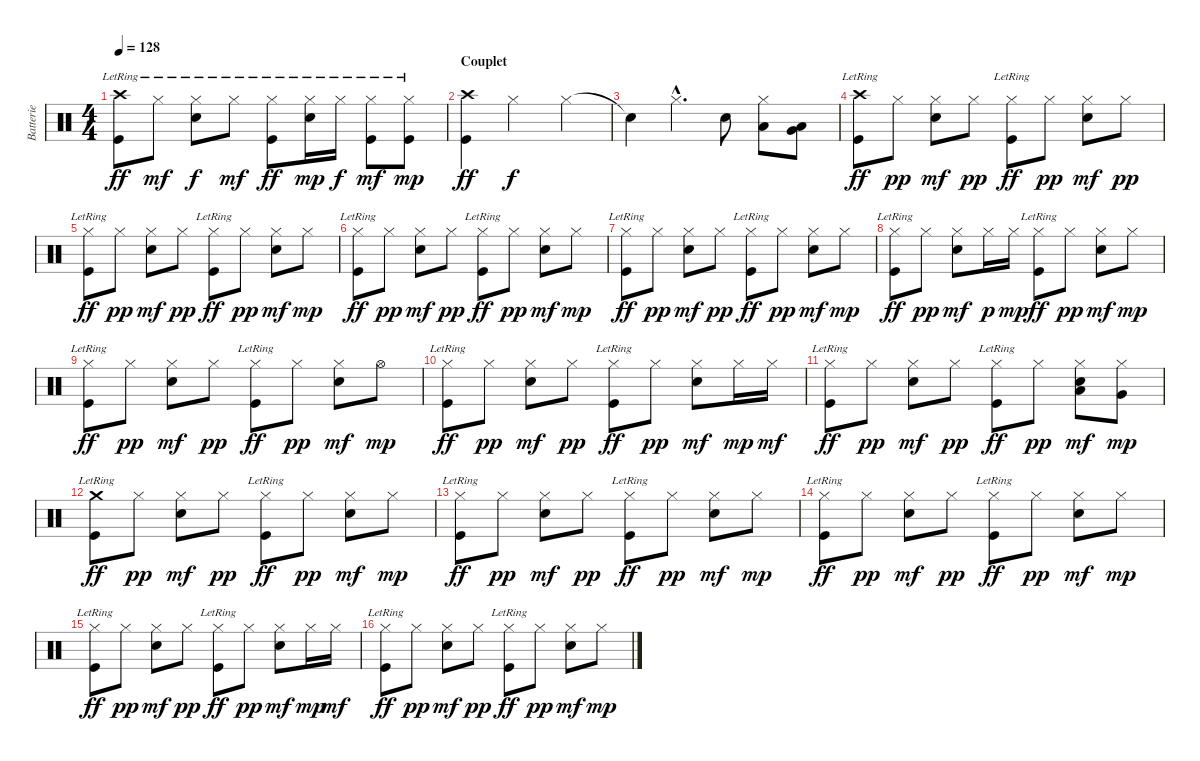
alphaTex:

\track ("Batterie" "Batterie") {instrument percussion}
\staff {score}
\articulation defaults
\ts (4 4)
\tempo 128
\clef neutral
\ks c
("Crash high (hit)"{lr} "Kick (hit)"{lr}).8{dy ff} "Hi-Hat (closed)"{lr}.8{dy mf} ("Hi-Hat (closed)"{lr} "Snare (hit) 2"{lr}).8{dy f} "Hi-Hat (closed)"{lr}.8{dy mf} ("Hi-Hat (closed)"{lr} "Kick (hit)").8{dy ff} ("Hi-Hat (closed)"{lr} "Snare (hit) 2").16{dy mp} "Hi-Hat (closed)"{lr}.16{dy f} ("Hi-Hat (closed)"{lr} "Kick (hit)").8{dy mf} ("Hi-Hat (closed)"{lr} "Kick (hit)").8{dy mp} |
\section ("" "Couplet")
("Crash high (hit)" "Kick (hit)").4{dy ff} "Hi-Hat (closed)".2{dy f} "Hi-Hat (closed)".4 |
"Snare (hit)"{t}.4 "Hi-Hat (closed)"{hac}.4{d} "Snare (hit) 2".8 ("Low Tom (hit)" "Hi-Hat (closed)").8 ("Low Floor Tom (hit)" "Very Low Tom (hit)").8 |
("Crash high (hit)" "Kick (hit)"{lr}).8{dy ff} "Hi-Hat (closed)".8{dy pp} ("Hi-Hat (closed)" "Snare (hit) 2").8{dy mf} "Hi-Hat (closed)".8{dy pp} ("Hi-Hat (closed)" "Kick (hit)"{lr}).8{dy ff} "Hi-Hat (closed)".8{dy pp} ("Hi-Hat (closed)" "Snare (hit) 2").8{dy mf} "Hi-Hat (closed)".8{dy pp} |
("Hi-Hat (closed)" "Kick (hit)"{lr}).8{dy ff} "Hi-Hat (closed)".8{dy pp} ("Hi-Hat (closed)" "Snare (hit) 2").8{dy mf} "Hi-Hat (closed)".8{dy pp} ("Hi-Hat (closed)" "Kick (hit)"{lr}).8{dy ff} "Hi-Hat (closed)".8{dy pp} ("Hi-Hat (closed)" "Snare (hit) 2").8{dy mf} "Hi-Hat (closed)".8{dy mp} |
("Hi-Hat (closed)" "Kick (hit)"{lr}).8{dy ff} "Hi-Hat (closed)".8{dy pp} ("Hi-Hat (closed)" "Snare (hit) 2").8{dy mf} "Hi-Hat (closed)".8{dy pp} ("Hi-Hat (closed)" "Kick (hit)"{lr}).8{dy ff} "Hi-Hat (closed)".8{dy pp} ("Hi-Hat (closed)" "Snare (hit) 2").8{dy mf} "Hi-Hat (closed)".8{dy mp} |
("Hi-Hat (closed)" "Kick (hit)"{lr}).8{dy ff} "Hi-Hat (closed)".8{dy pp} ("Hi-Hat (closed)" "Snare (hit) 2").8{dy mf} "Hi-Hat (closed)".8{dy pp} ("Hi-Hat (closed)" "Kick (hit)"{lr}).8{dy ff} "Hi-Hat (closed)".8{dy pp} ("Hi-Hat (closed)" "Snare (hit) 2").8{dy mf} "Hi-Hat (closed)".8{dy mp} |
("Hi-Hat (closed)" "Kick (hit)"{lr}).8{dy ff} "Hi-Hat (closed)".8{dy pp} ("Hi-Hat (closed)" "Snare (hit) 2").8{dy mf} "Hi-Hat (closed)".16{dy p} "Hi-Hat (closed)".16{dy mp} ("Hi-Hat (closed)" "Kick (hit)"{lr}).8{dy ff} "Hi-Hat (closed)".8{dy pp} ("Hi-Hat (closed)" "Snare (hit) 2").8{dy mf} "Hi-Hat (closed)".8{dy mp} |
("Hi-Hat (closed)" "Kick (hit)"{lr}).8{dy ff} "Hi-Hat (closed)".8{dy pp} ("Hi-Hat (closed)" "Snare (hit) 2").8{dy mf} "Hi-Hat (closed)".8{dy pp} ("Hi-Hat (closed)" "Kick (hit)"{lr}).8{dy ff} "Hi-Hat (closed)".8{dy pp} ("Hi-Hat (closed)" "Snare (hit) 2").8{dy mf} "Hi-Hat (open)".8{dy mp} |
("Hi-Hat (closed)" "Kick (hit)"{lr}).8{dy ff} "Hi-Hat (closed)".8{dy pp} ("Hi-Hat (closed)" "Snare (hit) 2").8{dy mf} "Hi-Hat (closed)".8{dy pp} ("Hi-Hat (closed)" "Kick (hit)"{lr}).8{dy ff} "Hi-Hat (closed)".8{dy pp} ("Hi-Hat (closed)" "Snare (hit) 2").8{dy mf} "Hi-Hat (closed)".16{dy mp} "Hi-Hat (closed)".16{dy mf} |
("Hi-Hat (closed)" "Kick (hit)"{lr}).8{dy ff} "Hi-Hat (closed)".8{dy pp} ("Hi-Hat (closed)" "Snare (hit) 2").8{dy mf} "Hi-Hat (closed)".8{dy pp} ("Hi-Hat (closed)" "Kick (hit)"{lr}).8{dy ff} "Hi-Hat (closed)".8{dy pp} ("Low Tom (hit)" "Hi-Hat (closed)" "Snare (hit) 2").8{dy mf} ("Very Low Tom (hit)" "Hi-Hat (closed)").8{dy mp} |
("Crash medium (hit)" "Kick (hit)"{lr}).8{dy ff} "Hi-Hat (closed)".8{dy pp} ("Hi-Hat (closed)" "Snare (hit) 2").8{dy mf} "Hi-Hat (closed)".8{dy pp} ("Hi-Hat (closed)" "Kick (hit)"{lr}).8{dy ff} "Hi-Hat (closed)".8{dy pp} ("Hi-Hat (closed)" "Snare (hit) 2").8{dy mf} "Hi-Hat (closed)".8{dy mp} |
("Hi-Hat (closed)" "Kick (hit)"{lr}).8{dy ff} "Hi-Hat (closed)".8{dy pp} ("Hi-Hat (closed)" "Snare (hit) 2").8{dy mf} "Hi-Hat (closed)".8{dy pp} ("Hi-Hat (closed)" "Kick (hit)"{lr}).8{dy ff} "Hi-Hat (closed)".8{dy pp} ("Hi-Hat (closed)" "Snare (hit) 2").8{dy mf} "Hi-Hat (closed)".8{dy mp} |
("Hi-Hat (closed)" "Kick (hit)"{lr}).8{dy ff} "Hi-Hat (closed)".8{dy pp} ("Hi-Hat (closed)" "Snare (hit) 2").8{dy mf} "Hi-Hat (closed)".8{dy pp} ("Hi-Hat (closed)" "Kick (hit)"{lr}).8{dy ff} "Hi-Hat (closed)".8{dy pp} ("Hi-Hat (closed)" "Snare (hit) 2").8{dy mf} "Hi-Hat (closed)".8{dy mp} |
("Hi-Hat (closed)" "Kick (hit)"{lr}).8{dy ff} "Hi-Hat (closed)".8{dy pp} ("Hi-Hat (closed)" "Snare (hit) 2").8{dy mf} "Hi-Hat (closed)".8{dy pp} ("Hi-Hat (closed)" "Kick (hit)"{lr}).8{dy ff} "Hi-Hat (closed)".8{dy pp} ("Hi-Hat (closed)" "Snare (hit) 2").8{dy mf} "Hi-Hat (closed)".16{dy mp} "Hi-Hat (closed)".16{dy mf} |
("Hi-Hat (closed)" "Kick (hit)"{lr}).8{dy ff} "Hi-Hat (closed)".8{dy pp} ("Hi-Hat (closed)" "Snare (hit) 2").8{dy mf} "Hi-Hat (closed)".8{dy pp} ("Hi-Hat (closed)" "Kick (hit)"{lr}).8{dy ff} "Hi-Hat (closed)".8{dy pp} ("Hi-Hat (closed)" "Snare (hit) 2").8{dy mf} "Hi-Hat (closed)".8{dy mp}
